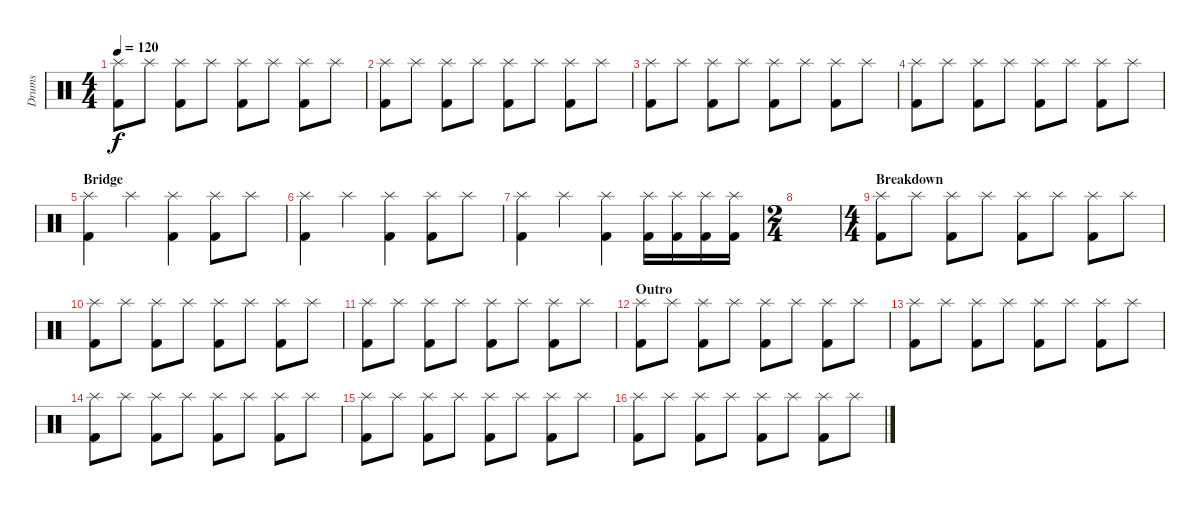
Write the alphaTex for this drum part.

\track ("Drums" "Drums") {instrument percussion}
\staff {score}
\articulation defaults
\ts (4 4)
\tempo 120
\clef neutral
\ks c
("Splash (hit)" "Kick (hit) 2").8{dy f} "Splash (hit)".8 ("Splash (hit)" "Kick (hit) 2").8 "Splash (hit)".8 ("Splash (hit)" "Kick (hit) 2").8 "Splash (hit)".8 ("Splash (hit)" "Kick (hit) 2").8 "Splash (hit)".8 |
("Splash (hit)" "Kick (hit) 2").8 "Splash (hit)".8 ("Splash (hit)" "Kick (hit) 2").8 "Splash (hit)".8 ("Splash (hit)" "Kick (hit) 2").8 "Splash (hit)".8 ("Splash (hit)" "Kick (hit) 2").8 "Splash (hit)".8 |
("Splash (hit)" "Kick (hit) 2").8 "Splash (hit)".8 ("Splash (hit)" "Kick (hit) 2").8 "Splash (hit)".8 ("Splash (hit)" "Kick (hit) 2").8 "Splash (hit)".8 ("Splash (hit)" "Kick (hit) 2").8 "Splash (hit)".8 |
("Splash (hit)" "Kick (hit) 2").8 "Splash (hit)".8 ("Splash (hit)" "Kick (hit) 2").8 "Splash (hit)".8 ("Splash (hit)" "Kick (hit) 2").8 "Splash (hit)".8 ("Splash (hit)" "Kick (hit) 2").8 "Splash (hit)".8 |
\section ("" "Bridge")
("Splash (hit)" "Kick (hit) 2").4 "Splash (hit)".4 ("Splash (hit)" "Kick (hit) 2").4 ("Splash (hit)" "Kick (hit) 2").8 "Splash (hit)".8 |
("Splash (hit)" "Kick (hit) 2").4 "Splash (hit)".4 ("Splash (hit)" "Kick (hit) 2").4 ("Splash (hit)" "Kick (hit) 2").8 "Splash (hit)".8 |
("Splash (hit)" "Kick (hit) 2").4 "Splash (hit)".4 ("Splash (hit)" "Kick (hit) 2").4 ("Splash (hit)" "Kick (hit) 2").16 ("Splash (hit)" "Kick (hit) 2").16 ("Splash (hit)" "Kick (hit) 2").16 ("Splash (hit)" "Kick (hit) 2").16 |
\ts (2 4)
|
\ts (4 4)
\section ("" "Breakdown")
("Splash (hit)" "Kick (hit) 2").8 "Splash (hit)".8 ("Splash (hit)" "Kick (hit) 2").8 "Splash (hit)".8 ("Splash (hit)" "Kick (hit) 2").8 "Splash (hit)".8 ("Splash (hit)" "Kick (hit) 2").8 "Splash (hit)".8 |
("Splash (hit)" "Kick (hit) 2").8 "Splash (hit)".8 ("Splash (hit)" "Kick (hit) 2").8 "Splash (hit)".8 ("Splash (hit)" "Kick (hit) 2").8 "Splash (hit)".8 ("Splash (hit)" "Kick (hit) 2").8 "Splash (hit)".8 |
("Splash (hit)" "Kick (hit) 2").8 "Splash (hit)".8 ("Splash (hit)" "Kick (hit) 2").8 "Splash (hit)".8 ("Splash (hit)" "Kick (hit) 2").8 "Splash (hit)".8 ("Splash (hit)" "Kick (hit) 2").8 "Splash (hit)".8 |
\section ("" "Outro")
("Splash (hit)" "Kick (hit) 2").8 "Splash (hit)".8 ("Splash (hit)" "Kick (hit) 2").8 "Splash (hit)".8 ("Splash (hit)" "Kick (hit) 2").8 "Splash (hit)".8 ("Splash (hit)" "Kick (hit) 2").8 "Splash (hit)".8 |
("Splash (hit)" "Kick (hit) 2").8 "Splash (hit)".8 ("Splash (hit)" "Kick (hit) 2").8 "Splash (hit)".8 ("Splash (hit)" "Kick (hit) 2").8 "Splash (hit)".8 ("Splash (hit)" "Kick (hit) 2").8 "Splash (hit)".8 |
("Splash (hit)" "Kick (hit) 2").8 "Splash (hit)".8 ("Splash (hit)" "Kick (hit) 2").8 "Splash (hit)".8 ("Splash (hit)" "Kick (hit) 2").8 "Splash (hit)".8 ("Splash (hit)" "Kick (hit) 2").8 "Splash (hit)".8 |
("Splash (hit)" "Kick (hit) 2").8 "Splash (hit)".8 ("Splash (hit)" "Kick (hit) 2").8 "Splash (hit)".8 ("Splash (hit)" "Kick (hit) 2").8 "Splash (hit)".8 ("Splash (hit)" "Kick (hit) 2").8 "Splash (hit)".8 |
("Splash (hit)" "Kick (hit) 2").8 "Splash (hit)".8 ("Splash (hit)" "Kick (hit) 2").8 "Splash (hit)".8 ("Splash (hit)" "Kick (hit) 2").8 "Splash (hit)".8 ("Splash (hit)" "Kick (hit) 2").8 "Splash (hit)".8
